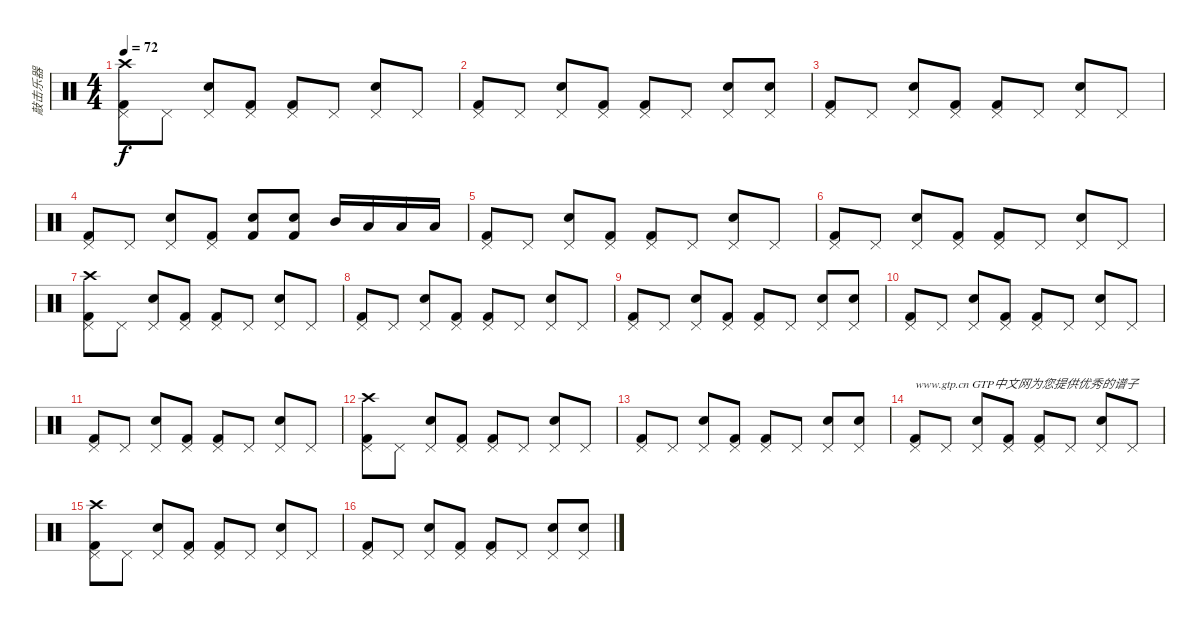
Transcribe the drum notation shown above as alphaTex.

\track ("敲击乐器" "敲击乐器") {instrument percussion}
\staff {score}
\articulation defaults
\ts (4 4)
\tempo 72
\clef neutral
\ks c
("Crash high (hit)" "Pedal Hi-Hat (hit)" "Kick (hit) 2").8{dy f} "Pedal Hi-Hat (hit)".8 ("Pedal Hi-Hat (hit)" "Snare (hit) 2").8 ("Pedal Hi-Hat (hit)" "Kick (hit) 2").8 ("Pedal Hi-Hat (hit)" "Kick (hit) 2").8 "Pedal Hi-Hat (hit)".8 ("Pedal Hi-Hat (hit)" "Snare (hit) 2").8 "Pedal Hi-Hat (hit)".8 |
("Pedal Hi-Hat (hit)" "Kick (hit) 2").8 "Pedal Hi-Hat (hit)".8 ("Pedal Hi-Hat (hit)" "Snare (hit) 2").8 ("Pedal Hi-Hat (hit)" "Kick (hit) 2").8 ("Pedal Hi-Hat (hit)" "Kick (hit) 2").8 "Pedal Hi-Hat (hit)".8 ("Pedal Hi-Hat (hit)" "Snare (hit) 2").8 ("Pedal Hi-Hat (hit)" "Snare (hit) 2").8 |
("Pedal Hi-Hat (hit)" "Kick (hit) 2").8 "Pedal Hi-Hat (hit)".8 ("Pedal Hi-Hat (hit)" "Snare (hit) 2").8 ("Pedal Hi-Hat (hit)" "Kick (hit) 2").8 ("Pedal Hi-Hat (hit)" "Kick (hit) 2").8 "Pedal Hi-Hat (hit)".8 ("Pedal Hi-Hat (hit)" "Snare (hit) 2").8 "Pedal Hi-Hat (hit)".8 |
("Pedal Hi-Hat (hit)" "Kick (hit) 2").8 "Pedal Hi-Hat (hit)".8 ("Pedal Hi-Hat (hit)" "Snare (hit) 2").8 ("Pedal Hi-Hat (hit)" "Kick (hit) 2").8 ("Snare (hit) 2" "Kick (hit) 2").8 ("Snare (hit) 2" "Kick (hit) 2").8 "Mid Tom (hit)".16 "Low Tom (hit)".16 "Low Floor Tom (hit)".16 "Low Floor Tom (hit)".16 |
("Pedal Hi-Hat (hit)" "Kick (hit) 2").8 "Pedal Hi-Hat (hit)".8 ("Pedal Hi-Hat (hit)" "Snare (hit) 2").8 ("Pedal Hi-Hat (hit)" "Kick (hit) 2").8 ("Pedal Hi-Hat (hit)" "Kick (hit) 2").8 "Pedal Hi-Hat (hit)".8 ("Pedal Hi-Hat (hit)" "Snare (hit) 2").8 "Pedal Hi-Hat (hit)".8 |
("Pedal Hi-Hat (hit)" "Kick (hit) 2").8 "Pedal Hi-Hat (hit)".8 ("Pedal Hi-Hat (hit)" "Snare (hit) 2").8 ("Pedal Hi-Hat (hit)" "Kick (hit) 2").8 ("Pedal Hi-Hat (hit)" "Kick (hit) 2").8 "Pedal Hi-Hat (hit)".8 ("Pedal Hi-Hat (hit)" "Snare (hit) 2").8 "Pedal Hi-Hat (hit)".8 |
("Crash high (hit)" "Pedal Hi-Hat (hit)" "Kick (hit) 2").8 "Pedal Hi-Hat (hit)".8 ("Pedal Hi-Hat (hit)" "Snare (hit) 2").8 ("Pedal Hi-Hat (hit)" "Kick (hit) 2").8 ("Pedal Hi-Hat (hit)" "Kick (hit) 2").8 "Pedal Hi-Hat (hit)".8 ("Pedal Hi-Hat (hit)" "Snare (hit) 2").8 "Pedal Hi-Hat (hit)".8 |
("Pedal Hi-Hat (hit)" "Kick (hit) 2").8 "Pedal Hi-Hat (hit)".8 ("Pedal Hi-Hat (hit)" "Snare (hit) 2").8 ("Pedal Hi-Hat (hit)" "Kick (hit) 2").8 ("Pedal Hi-Hat (hit)" "Kick (hit) 2").8 "Pedal Hi-Hat (hit)".8 ("Pedal Hi-Hat (hit)" "Snare (hit) 2").8 "Pedal Hi-Hat (hit)".8 |
("Pedal Hi-Hat (hit)" "Kick (hit) 2").8 "Pedal Hi-Hat (hit)".8 ("Pedal Hi-Hat (hit)" "Snare (hit) 2").8 ("Pedal Hi-Hat (hit)" "Kick (hit) 2").8 ("Pedal Hi-Hat (hit)" "Kick (hit) 2").8 "Pedal Hi-Hat (hit)".8 ("Pedal Hi-Hat (hit)" "Snare (hit) 2").8 ("Pedal Hi-Hat (hit)" "Snare (hit) 2").8 |
("Pedal Hi-Hat (hit)" "Kick (hit) 2").8 "Pedal Hi-Hat (hit)".8 ("Pedal Hi-Hat (hit)" "Snare (hit) 2").8 ("Pedal Hi-Hat (hit)" "Kick (hit) 2").8 ("Pedal Hi-Hat (hit)" "Kick (hit) 2").8 "Pedal Hi-Hat (hit)".8 ("Pedal Hi-Hat (hit)" "Snare (hit) 2").8 "Pedal Hi-Hat (hit)".8 |
("Pedal Hi-Hat (hit)" "Kick (hit) 2").8 "Pedal Hi-Hat (hit)".8 ("Pedal Hi-Hat (hit)" "Snare (hit) 2").8 ("Pedal Hi-Hat (hit)" "Kick (hit) 2").8 ("Pedal Hi-Hat (hit)" "Kick (hit) 2").8 "Pedal Hi-Hat (hit)".8 ("Pedal Hi-Hat (hit)" "Snare (hit) 2").8 "Pedal Hi-Hat (hit)".8 |
("Crash high (hit)" "Pedal Hi-Hat (hit)" "Kick (hit) 2").8 "Pedal Hi-Hat (hit)".8 ("Pedal Hi-Hat (hit)" "Snare (hit) 2").8 ("Pedal Hi-Hat (hit)" "Kick (hit) 2").8 ("Pedal Hi-Hat (hit)" "Kick (hit) 2").8 "Pedal Hi-Hat (hit)".8 ("Pedal Hi-Hat (hit)" "Snare (hit) 2").8 "Pedal Hi-Hat (hit)".8 |
("Pedal Hi-Hat (hit)" "Kick (hit) 2").8 "Pedal Hi-Hat (hit)".8 ("Pedal Hi-Hat (hit)" "Snare (hit) 2").8 ("Pedal Hi-Hat (hit)" "Kick (hit) 2").8 ("Pedal Hi-Hat (hit)" "Kick (hit) 2").8 "Pedal Hi-Hat (hit)".8 ("Pedal Hi-Hat (hit)" "Snare (hit) 2").8 ("Pedal Hi-Hat (hit)" "Snare (hit) 2").8 |
("Pedal Hi-Hat (hit)" "Kick (hit) 2").8{txt "www.gtp.cn GTP中文网为您提供优秀的谱子"} "Pedal Hi-Hat (hit)".8 ("Pedal Hi-Hat (hit)" "Snare (hit) 2").8 ("Pedal Hi-Hat (hit)" "Kick (hit) 2").8 ("Pedal Hi-Hat (hit)" "Kick (hit) 2").8 "Pedal Hi-Hat (hit)".8 ("Pedal Hi-Hat (hit)" "Snare (hit) 2").8 "Pedal Hi-Hat (hit)".8 |
("Crash high (hit)" "Pedal Hi-Hat (hit)" "Kick (hit) 2").8 "Pedal Hi-Hat (hit)".8 ("Pedal Hi-Hat (hit)" "Snare (hit) 2").8 ("Pedal Hi-Hat (hit)" "Kick (hit) 2").8 ("Pedal Hi-Hat (hit)" "Kick (hit) 2").8 "Pedal Hi-Hat (hit)".8 ("Pedal Hi-Hat (hit)" "Snare (hit) 2").8 "Pedal Hi-Hat (hit)".8 |
("Pedal Hi-Hat (hit)" "Kick (hit) 2").8 "Pedal Hi-Hat (hit)".8 ("Pedal Hi-Hat (hit)" "Snare (hit) 2").8 ("Pedal Hi-Hat (hit)" "Kick (hit) 2").8 ("Pedal Hi-Hat (hit)" "Kick (hit) 2").8 "Pedal Hi-Hat (hit)".8 ("Pedal Hi-Hat (hit)" "Snare (hit) 2").8 ("Pedal Hi-Hat (hit)" "Snare (hit) 2").8
